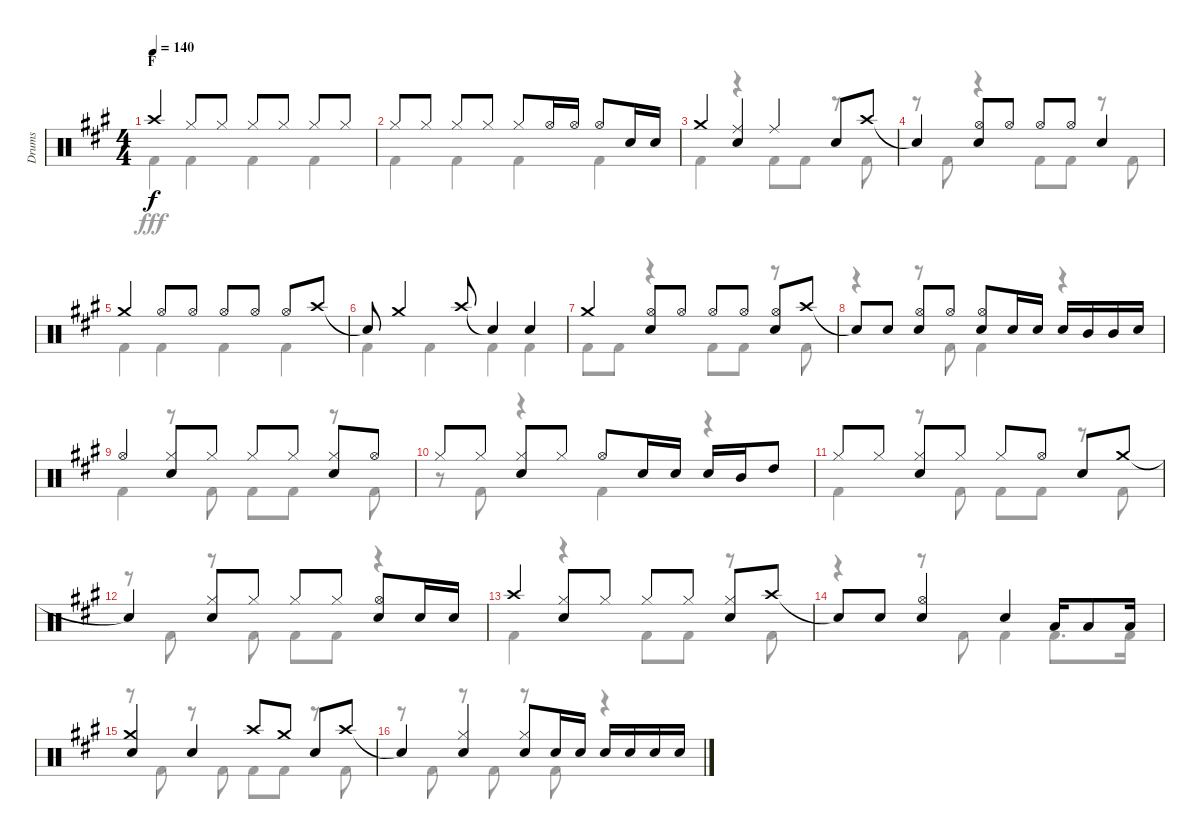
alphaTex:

\track ("Drums" "Drums") {instrument percussion}
\staff {score}
\articulation defaults
\voice
\ts (4 4)
\section ("" "F")
\tempo 140
\clef neutral
\ks a "Crash high (hit)".4{dy f} "Hi-Hat (closed)".8 "Hi-Hat (closed)".8 "Hi-Hat (closed)".8 "Hi-Hat (closed)".8 "Hi-Hat (closed)".8 "Hi-Hat (closed)".8
|
"Hi-Hat (closed)".8 "Hi-Hat (closed)".8 "Hi-Hat (closed)".8 "Hi-Hat (closed)".8 "Hi-Hat (closed)".8 "Hi-Hat (open)".16 "Hi-Hat (open)".16 "Hi-Hat (open)".8 "Snare (hit) 2".16 "Snare (hit) 2".16 |
"Crash medium (hit)".4 ("Ride (middle)" "Snare (hit) 2").4 "Ride (middle)".4 "Snare (hit) 2".8 "Crash high (hit)".8 |
"Snare (hit)"{t}.4 ("Hi-Hat (open)" "Snare (hit) 2").8 "Hi-Hat (open)".8 "Hi-Hat (open)".8 "Hi-Hat (open)".8 "Snare (hit) 2".4 |
"Crash medium (hit)".4 "Hi-Hat (open)".8 "Hi-Hat (open)".8 "Hi-Hat (open)".8 "Hi-Hat (open)".8 "Hi-Hat (open)".8 "Crash high (hit)".8 |
"Snare (hit)"{t}.8 "Crash medium (hit)".4 "Crash high (hit)".8 "Snare (hit)"{t}.4 "Snare (hit) 2".4 |
"Crash medium (hit)".4 ("Hi-Hat (open)" "Snare (hit) 2").8 "Hi-Hat (open)".8 "Hi-Hat (open)".8 "Hi-Hat (open)".8 ("Hi-Hat (open)" "Snare (hit) 2").8 "Crash high (hit)".8 |
"Snare (hit)"{t}.8 "Snare (hit) 2".8 ("Hi-Hat (open)" "Snare (hit) 2").8 "Hi-Hat (open)".8 ("Hi-Hat (open)" "Snare (hit) 2").8 "Snare (hit) 2".16 "Snare (hit) 2".16 "Snare (hit) 2".16 "Mid Tom (hit)".16 "Mid Tom (hit)".16 "Snare (hit) 2".16 |
"Hi-Hat (open)".4 ("Hi-Hat (closed)" "Snare (hit) 2").8 "Hi-Hat (closed)".8 "Hi-Hat (closed)".8 "Hi-Hat (closed)".8 ("Hi-Hat (closed)" "Snare (hit) 2").8 "Hi-Hat (open)".8 |
"Hi-Hat (closed)".8 "Hi-Hat (closed)".8 ("Hi-Hat (closed)" "Snare (hit) 2").8 "Hi-Hat (closed)".8 "Hi-Hat (open)".8 "Snare (hit) 2".16 "Snare (hit) 2".16 "Snare (hit) 2".16 "Mid Tom (hit)".16 "High Tom (hit)".8 |
"Hi-Hat (closed)".8 "Hi-Hat (closed)".8 ("Hi-Hat (closed)" "Snare (hit) 2").8 "Hi-Hat (closed)".8 "Hi-Hat (closed)".8 "Hi-Hat (open)".8 "Snare (hit) 2".8 "Crash medium (hit)".8 |
"Snare (hit)"{t}.4 ("Hi-Hat (closed)" "Snare (hit) 2").8 "Hi-Hat (closed)".8 "Hi-Hat (closed)".8 "Hi-Hat (closed)".8 ("Hi-Hat (open)" "Snare (hit) 2").8 "Snare (hit) 2".16 "Snare (hit) 2".16 |
"Crash high (hit)".4 ("Hi-Hat (closed)" "Snare (hit) 2").8 "Hi-Hat (closed)".8 "Hi-Hat (closed)".8 "Hi-Hat (closed)".8 ("Hi-Hat (closed)" "Snare (hit) 2").8 "Crash high (hit)".8 |
"Snare (hit)"{t}.8 "Snare (hit) 2".8 ("Hi-Hat (open)" "Snare (hit) 2").4 "Snare (hit) 2".4 "Low Tom (hit)".16 "Low Tom (hit)".8 "Low Tom (hit)".16 |
("Crash medium (hit)" "Snare (hit) 2").4 "Snare (hit) 2".4 "Crash high (hit)".8 "Crash medium (hit)".8 "Snare (hit) 2".8 "Crash high (hit)".8 |
"Snare (hit)"{t}.4 ("Hi-Hat (closed)" "Snare (hit) 2").4 ("Hi-Hat (closed)" "Snare (hit) 2").8 "Snare (hit) 2".16 "Snare (hit) 2".16 "Snare (hit) 2".16 "Snare (hit) 2".16 "Snare (hit) 2".16 "Snare (hit) 2".16
\voice
\clef neutral
\ottava regular
\simile none
\ks a "Kick (hit) 2".4{dy fff} "Kick (hit) 2".4 "Kick (hit) 2".4 "Kick (hit) 2".4
|
"Kick (hit) 2".4 "Kick (hit) 2".4 "Kick (hit) 2".4 "Kick (hit) 2".4 |
"Kick (hit) 2".4 r.4 "Kick (hit) 2".8 "Kick (hit) 2".8 r.8 "Kick (hit) 2".8 |
r.8 "Kick (hit) 2".8 r.4 "Kick (hit) 2".8 "Kick (hit) 2".8 r.8 "Kick (hit) 2".8 |
"Kick (hit) 2".4 "Kick (hit) 2".4 "Kick (hit) 2".4 "Kick (hit) 2".4 |
"Kick (hit) 2".4 "Kick (hit) 2".4 "Kick (hit) 2".4 "Kick (hit) 2".4 |
"Kick (hit) 2".8 "Kick (hit) 2".8 r.4 "Kick (hit) 2".8 "Kick (hit) 2".8 r.8 "Kick (hit) 2".8 |
r.4 r.8 "Kick (hit) 2".8 "Kick (hit) 2".4 r.4 |
"Kick (hit) 2".4 r.8 "Kick (hit) 2".8 "Kick (hit) 2".8 "Kick (hit) 2".8 r.8 "Kick (hit) 2".8 |
r.8 "Kick (hit) 2".8 r.4 "Kick (hit) 2".4 r.4 |
"Kick (hit) 2".4 r.8 "Kick (hit) 2".8 "Kick (hit) 2".8 "Kick (hit) 2".8 r.8 "Kick (hit) 2".8 |
r.8 "Kick (hit) 2".8 r.8 "Kick (hit) 2".8 "Kick (hit) 2".8 "Kick (hit) 2".8 r.4 |
"Kick (hit) 2".4 r.4 "Kick (hit) 2".8 "Kick (hit) 2".8 r.8 "Kick (hit) 2".8 |
r.4 r.8 "Kick (hit) 2".8 "Kick (hit) 2".4 "Kick (hit) 2".8{d} "Kick (hit) 2".16 |
r.8 "Kick (hit) 2".8 r.8 "Kick (hit) 2".8 "Kick (hit) 2".8 "Kick (hit) 2".8 r.8 "Kick (hit) 2".8 |
r.8 "Kick (hit) 2".8 r.8 "Kick (hit) 2".8 r.8 "Kick (hit) 2".8 r.4
